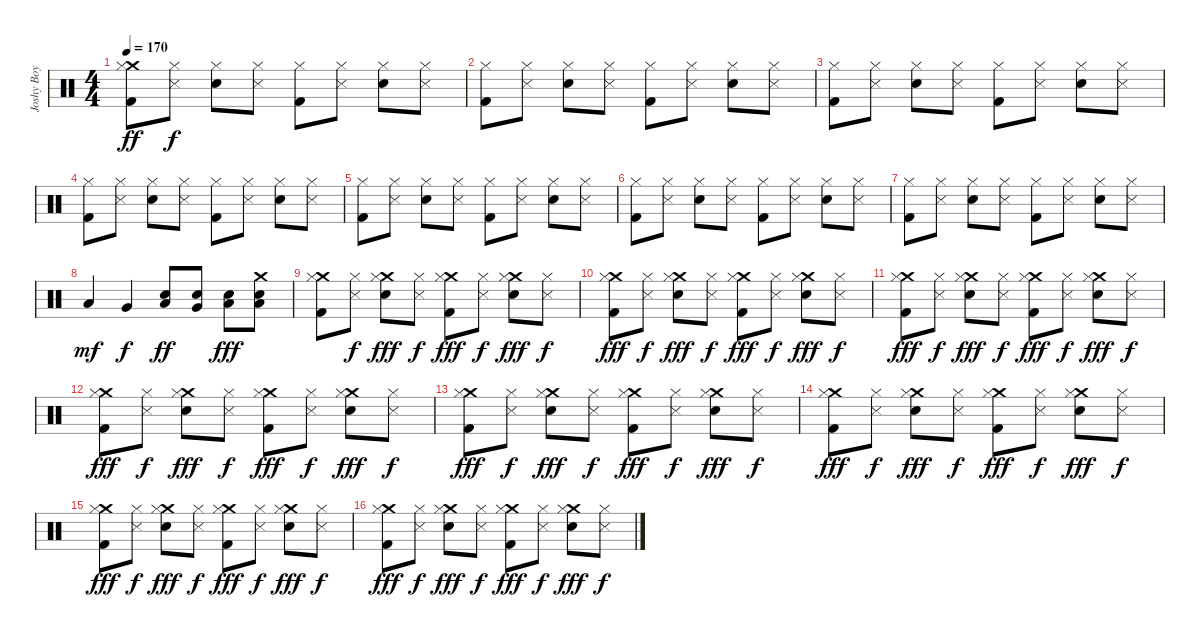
\track ("Joshy Boy" "Joshy Boy") {instrument percussion}
\staff {score}
\articulation defaults
\ts (4 4)
\tempo 170
\clef neutral
\ks c
("Crash medium (hit)" "Hi-Hat (closed)" "Kick (hit) 2").8{dy ff} ("Hi-Hat (closed)" "Snare (side stick) 3").8{dy f} ("Hi-Hat (closed)" "Electric Snare (hit)").8 ("Hi-Hat (closed)" "Snare (side stick) 3").8 ("Hi-Hat (closed)" "Kick (hit) 2").8 ("Hi-Hat (closed)" "Snare (side stick) 3").8 ("Hi-Hat (closed)" "Electric Snare (hit)").8 ("Hi-Hat (closed)" "Snare (side stick) 3").8 |
("Hi-Hat (closed)" "Kick (hit) 2").8 ("Hi-Hat (closed)" "Snare (side stick) 3").8 ("Hi-Hat (closed)" "Electric Snare (hit)").8 ("Hi-Hat (closed)" "Snare (side stick) 3").8 ("Hi-Hat (closed)" "Kick (hit) 2").8 ("Hi-Hat (closed)" "Snare (side stick) 3").8 ("Hi-Hat (closed)" "Electric Snare (hit)").8 ("Hi-Hat (closed)" "Snare (side stick) 3").8 |
("Hi-Hat (closed)" "Kick (hit) 2").8 ("Hi-Hat (closed)" "Snare (side stick) 3").8 ("Hi-Hat (closed)" "Electric Snare (hit)").8 ("Hi-Hat (closed)" "Snare (side stick) 3").8 ("Hi-Hat (closed)" "Kick (hit) 2").8 ("Hi-Hat (closed)" "Snare (side stick) 3").8 ("Hi-Hat (closed)" "Electric Snare (hit)").8 ("Hi-Hat (closed)" "Snare (side stick) 3").8 |
("Hi-Hat (closed)" "Kick (hit) 2").8 ("Hi-Hat (closed)" "Snare (side stick) 3").8 ("Hi-Hat (closed)" "Electric Snare (hit)").8 ("Hi-Hat (closed)" "Snare (side stick) 3").8 ("Hi-Hat (closed)" "Kick (hit) 2").8 ("Hi-Hat (closed)" "Snare (side stick) 3").8 ("Hi-Hat (closed)" "Electric Snare (hit)").8 ("Hi-Hat (closed)" "Snare (side stick) 3").8 |
("Hi-Hat (closed)" "Kick (hit) 2").8 ("Hi-Hat (closed)" "Snare (side stick) 3").8 ("Hi-Hat (closed)" "Electric Snare (hit)").8 ("Hi-Hat (closed)" "Snare (side stick) 3").8 ("Hi-Hat (closed)" "Kick (hit) 2").8 ("Hi-Hat (closed)" "Snare (side stick) 3").8 ("Hi-Hat (closed)" "Electric Snare (hit)").8 ("Hi-Hat (closed)" "Snare (side stick) 3").8 |
("Hi-Hat (closed)" "Kick (hit) 2").8 ("Hi-Hat (closed)" "Snare (side stick) 3").8 ("Hi-Hat (closed)" "Electric Snare (hit)").8 ("Hi-Hat (closed)" "Snare (side stick) 3").8 ("Hi-Hat (closed)" "Kick (hit) 2").8 ("Hi-Hat (closed)" "Snare (side stick) 3").8 ("Hi-Hat (closed)" "Electric Snare (hit)").8 ("Hi-Hat (closed)" "Snare (side stick) 3").8 |
("Hi-Hat (closed)" "Kick (hit) 2").8 ("Hi-Hat (closed)" "Snare (side stick) 3").8 ("Hi-Hat (closed)" "Electric Snare (hit)").8 ("Hi-Hat (closed)" "Snare (side stick) 3").8 ("Hi-Hat (closed)" "Kick (hit) 2").8 ("Hi-Hat (closed)" "Snare (side stick) 3").8 ("Hi-Hat (closed)" "Electric Snare (hit)").8 ("Hi-Hat (closed)" "Snare (side stick) 3").8 |
"Low Tom (hit)".4{dy mf} "Very Low Tom (hit)".4{dy f} ("Electric Snare (hit)" "Low Tom (hit)").8{dy ff} ("Electric Snare (hit)" "Very Low Tom (hit)").8 ("Electric Snare (hit)" "Low Floor Tom (hit)").8{dy fff} ("Crash medium (hit)" "Electric Snare (hit)" "Low Floor Tom (hit)").8 |
("Crash medium (hit)" "Hi-Hat (closed)" "Kick (hit) 2").8 ("Hi-Hat (closed)" "Snare (side stick) 3").8{dy f} ("Crash medium (hit)" "Hi-Hat (closed)" "Electric Snare (hit)").8{dy fff} ("Hi-Hat (closed)" "Snare (side stick) 3").8{dy f} ("Crash medium (hit)" "Hi-Hat (closed)" "Kick (hit) 2").8{dy fff} ("Hi-Hat (closed)" "Snare (side stick) 3").8{dy f} ("Crash medium (hit)" "Hi-Hat (closed)" "Electric Snare (hit)").8{dy fff} ("Hi-Hat (closed)" "Snare (side stick) 3").8{dy f} |
("Crash medium (hit)" "Hi-Hat (closed)" "Kick (hit) 2").8{dy fff} ("Hi-Hat (closed)" "Snare (side stick) 3").8{dy f} ("Crash medium (hit)" "Hi-Hat (closed)" "Electric Snare (hit)").8{dy fff} ("Hi-Hat (closed)" "Snare (side stick) 3").8{dy f} ("Crash medium (hit)" "Hi-Hat (closed)" "Kick (hit) 2").8{dy fff} ("Hi-Hat (closed)" "Snare (side stick) 3").8{dy f} ("Crash medium (hit)" "Hi-Hat (closed)" "Electric Snare (hit)").8{dy fff} ("Hi-Hat (closed)" "Snare (side stick) 3").8{dy f} |
("Crash medium (hit)" "Hi-Hat (closed)" "Kick (hit) 2").8{dy fff} ("Hi-Hat (closed)" "Snare (side stick) 3").8{dy f} ("Crash medium (hit)" "Hi-Hat (closed)" "Electric Snare (hit)").8{dy fff} ("Hi-Hat (closed)" "Snare (side stick) 3").8{dy f} ("Crash medium (hit)" "Hi-Hat (closed)" "Kick (hit) 2").8{dy fff} ("Hi-Hat (closed)" "Snare (side stick) 3").8{dy f} ("Crash medium (hit)" "Hi-Hat (closed)" "Electric Snare (hit)").8{dy fff} ("Hi-Hat (closed)" "Snare (side stick) 3").8{dy f} |
("Crash medium (hit)" "Hi-Hat (closed)" "Kick (hit) 2").8{dy fff} ("Hi-Hat (closed)" "Snare (side stick) 3").8{dy f} ("Crash medium (hit)" "Hi-Hat (closed)" "Electric Snare (hit)").8{dy fff} ("Hi-Hat (closed)" "Snare (side stick) 3").8{dy f} ("Crash medium (hit)" "Hi-Hat (closed)" "Kick (hit) 2").8{dy fff} ("Hi-Hat (closed)" "Snare (side stick) 3").8{dy f} ("Crash medium (hit)" "Hi-Hat (closed)" "Electric Snare (hit)").8{dy fff} ("Hi-Hat (closed)" "Snare (side stick) 3").8{dy f} |
("Crash medium (hit)" "Hi-Hat (closed)" "Kick (hit) 2").8{dy fff} ("Hi-Hat (closed)" "Snare (side stick) 3").8{dy f} ("Crash medium (hit)" "Hi-Hat (closed)" "Electric Snare (hit)").8{dy fff} ("Hi-Hat (closed)" "Snare (side stick) 3").8{dy f} ("Crash medium (hit)" "Hi-Hat (closed)" "Kick (hit) 2").8{dy fff} ("Hi-Hat (closed)" "Snare (side stick) 3").8{dy f} ("Crash medium (hit)" "Hi-Hat (closed)" "Electric Snare (hit)").8{dy fff} ("Hi-Hat (closed)" "Snare (side stick) 3").8{dy f} |
("Crash medium (hit)" "Hi-Hat (closed)" "Kick (hit) 2").8{dy fff} ("Hi-Hat (closed)" "Snare (side stick) 3").8{dy f} ("Crash medium (hit)" "Hi-Hat (closed)" "Electric Snare (hit)").8{dy fff} ("Hi-Hat (closed)" "Snare (side stick) 3").8{dy f} ("Crash medium (hit)" "Hi-Hat (closed)" "Kick (hit) 2").8{dy fff} ("Hi-Hat (closed)" "Snare (side stick) 3").8{dy f} ("Crash medium (hit)" "Hi-Hat (closed)" "Electric Snare (hit)").8{dy fff} ("Hi-Hat (closed)" "Snare (side stick) 3").8{dy f} |
("Crash medium (hit)" "Hi-Hat (closed)" "Kick (hit) 2").8{dy fff} ("Hi-Hat (closed)" "Snare (side stick) 3").8{dy f} ("Crash medium (hit)" "Hi-Hat (closed)" "Electric Snare (hit)").8{dy fff} ("Hi-Hat (closed)" "Snare (side stick) 3").8{dy f} ("Crash medium (hit)" "Hi-Hat (closed)" "Kick (hit) 2").8{dy fff} ("Hi-Hat (closed)" "Snare (side stick) 3").8{dy f} ("Crash medium (hit)" "Hi-Hat (closed)" "Electric Snare (hit)").8{dy fff} ("Hi-Hat (closed)" "Snare (side stick) 3").8{dy f} |
("Crash medium (hit)" "Hi-Hat (closed)" "Kick (hit) 2").8{dy fff} ("Hi-Hat (closed)" "Snare (side stick) 3").8{dy f} ("Crash medium (hit)" "Hi-Hat (closed)" "Electric Snare (hit)").8{dy fff} ("Hi-Hat (closed)" "Snare (side stick) 3").8{dy f} ("Crash medium (hit)" "Hi-Hat (closed)" "Kick (hit) 2").8{dy fff} ("Hi-Hat (closed)" "Snare (side stick) 3").8{dy f} ("Crash medium (hit)" "Hi-Hat (closed)" "Electric Snare (hit)").8{dy fff} ("Hi-Hat (closed)" "Snare (side stick) 3").8{dy f}
